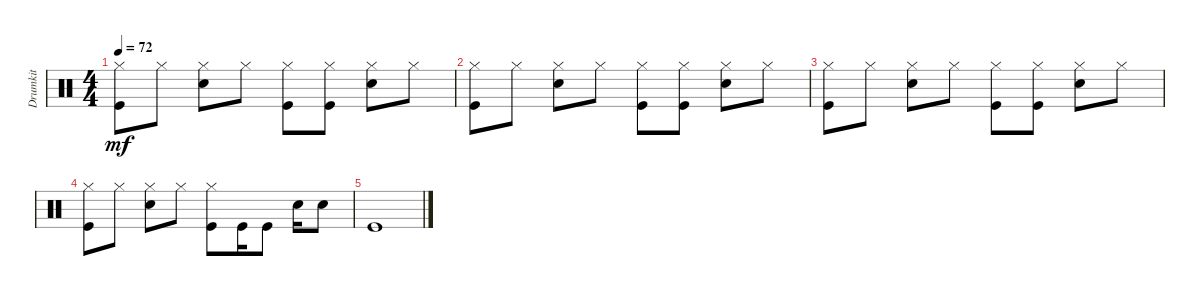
\track ("Drumkit" "Drumkit") {instrument percussion}
\staff {score}
\articulation defaults
\ts (4 4)
\tempo 72
\clef neutral
\ks c
("Hi-Hat (closed)" "Kick (hit)").8{dy mf} "Hi-Hat (closed)".8 ("Hi-Hat (closed)" "Snare (hit) 2").8 "Hi-Hat (closed)".8 ("Hi-Hat (closed)" "Kick (hit)").8 ("Hi-Hat (closed)" "Kick (hit)").8 ("Hi-Hat (closed)" "Snare (hit) 2").8 "Hi-Hat (closed)".8 |
("Hi-Hat (closed)" "Kick (hit)").8 "Hi-Hat (closed)".8 ("Hi-Hat (closed)" "Snare (hit) 2").8 "Hi-Hat (closed)".8 ("Hi-Hat (closed)" "Kick (hit)").8 ("Hi-Hat (closed)" "Kick (hit)").8 ("Hi-Hat (closed)" "Snare (hit) 2").8 "Hi-Hat (closed)".8 |
("Hi-Hat (closed)" "Kick (hit)").8 "Hi-Hat (closed)".8 ("Hi-Hat (closed)" "Snare (hit) 2").8 "Hi-Hat (closed)".8 ("Hi-Hat (closed)" "Kick (hit)").8 ("Hi-Hat (closed)" "Kick (hit)").8 ("Hi-Hat (closed)" "Snare (hit) 2").8 "Hi-Hat (closed)".8 |
("Hi-Hat (closed)" "Kick (hit)").8 "Hi-Hat (closed)".8 ("Hi-Hat (closed)" "Snare (hit) 2").8 "Hi-Hat (closed)".8 ("Hi-Hat (closed)" "Kick (hit)").8 "Kick (hit)".16 "Kick (hit)".8 "Snare (hit) 2".16 "Snare (hit) 2".8 |
"Kick (hit)".1
